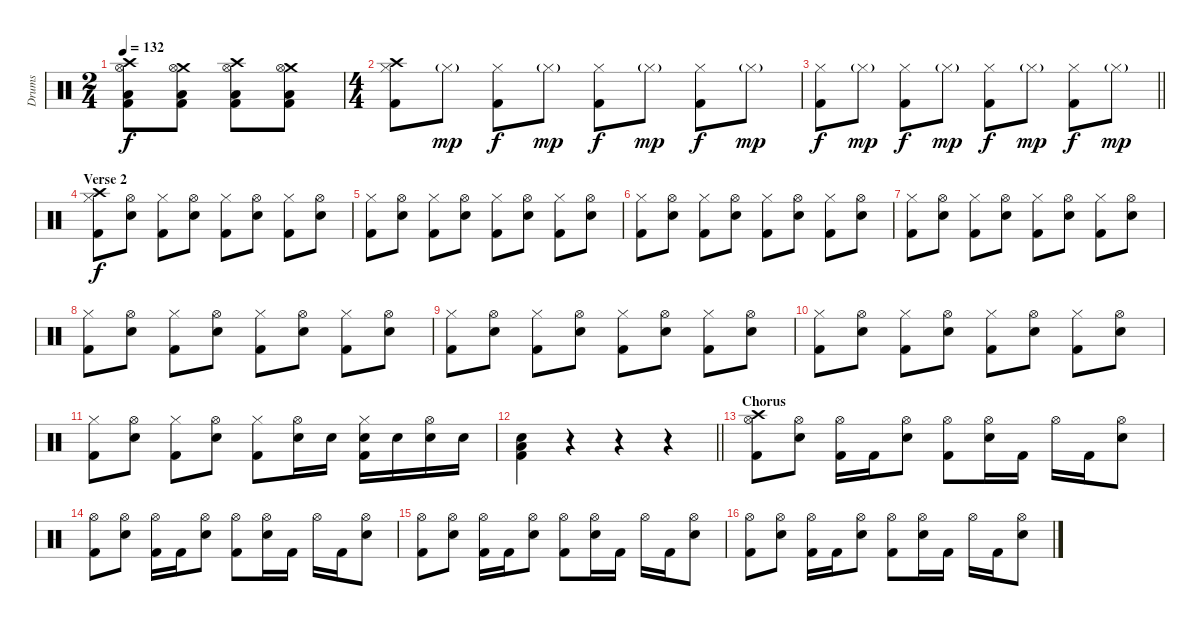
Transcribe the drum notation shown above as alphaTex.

\track ("Drums" "Drums") {instrument percussion}
\staff {score}
\articulation defaults
\ts (2 4)
\tempo 132
\clef neutral
\ks c
("Crash high (hit)" "Hi-Hat (open)" "Low Floor Tom (hit)" "Kick (hit) 2").8{dy f} ("Crash medium (hit)" "Hi-Hat (open)" "Low Floor Tom (hit)" "Kick (hit) 2").8 ("Crash high (hit)" "Hi-Hat (open)" "Low Floor Tom (hit)" "Kick (hit) 2").8 ("Crash medium (hit)" "Hi-Hat (open)" "Low Floor Tom (hit)" "Kick (hit) 2").8 |
\ts (4 4)
("Crash high (hit)" "Hi-Hat (closed)" "Kick (hit) 2").8 "Hi-Hat (closed)"{g}.8{dy mp} ("Hi-Hat (closed)" "Kick (hit) 2").8{dy f} "Hi-Hat (closed)"{g}.8{dy mp} ("Hi-Hat (closed)" "Kick (hit) 2").8{dy f} "Hi-Hat (closed)"{g}.8{dy mp} ("Hi-Hat (closed)" "Kick (hit) 2").8{dy f} "Hi-Hat (closed)"{g}.8{dy mp} |
\barLineRight lightlight
("Hi-Hat (closed)" "Kick (hit) 2").8{dy f} "Hi-Hat (closed)"{g}.8{dy mp} ("Hi-Hat (closed)" "Kick (hit) 2").8{dy f} "Hi-Hat (closed)"{g}.8{dy mp} ("Hi-Hat (closed)" "Kick (hit) 2").8{dy f} "Hi-Hat (closed)"{g}.8{dy mp} ("Hi-Hat (closed)" "Kick (hit) 2").8{dy f} "Hi-Hat (closed)"{g}.8{dy mp} |
\section ("" "Verse 2")
("Crash high (hit)" "Hi-Hat (closed)" "Kick (hit) 2").8{dy f} ("Hi-Hat (open)" "Snare (hit) 2").8 ("Hi-Hat (closed)" "Kick (hit) 2").8 ("Hi-Hat (open)" "Snare (hit) 2").8 ("Hi-Hat (closed)" "Kick (hit) 2").8 ("Hi-Hat (open)" "Snare (hit) 2").8 ("Hi-Hat (closed)" "Kick (hit) 2").8 ("Hi-Hat (open)" "Snare (hit) 2").8 |
("Hi-Hat (closed)" "Kick (hit) 2").8 ("Hi-Hat (open)" "Snare (hit) 2").8 ("Hi-Hat (closed)" "Kick (hit) 2").8 ("Hi-Hat (open)" "Snare (hit) 2").8 ("Hi-Hat (closed)" "Kick (hit) 2").8 ("Hi-Hat (open)" "Snare (hit) 2").8 ("Hi-Hat (closed)" "Kick (hit) 2").8 ("Hi-Hat (open)" "Snare (hit) 2").8 |
("Hi-Hat (closed)" "Kick (hit) 2").8 ("Hi-Hat (open)" "Snare (hit) 2").8 ("Hi-Hat (closed)" "Kick (hit) 2").8 ("Hi-Hat (open)" "Snare (hit) 2").8 ("Hi-Hat (closed)" "Kick (hit) 2").8 ("Hi-Hat (open)" "Snare (hit) 2").8 ("Hi-Hat (closed)" "Kick (hit) 2").8 ("Hi-Hat (open)" "Snare (hit) 2").8 |
("Hi-Hat (closed)" "Kick (hit) 2").8 ("Hi-Hat (open)" "Snare (hit) 2").8 ("Hi-Hat (closed)" "Kick (hit) 2").8 ("Hi-Hat (open)" "Snare (hit) 2").8 ("Hi-Hat (closed)" "Kick (hit) 2").8 ("Hi-Hat (open)" "Snare (hit) 2").8 ("Hi-Hat (closed)" "Kick (hit) 2").8 ("Hi-Hat (open)" "Snare (hit) 2").8 |
("Hi-Hat (closed)" "Kick (hit) 2").8 ("Hi-Hat (open)" "Snare (hit) 2").8 ("Hi-Hat (closed)" "Kick (hit) 2").8 ("Hi-Hat (open)" "Snare (hit) 2").8 ("Hi-Hat (closed)" "Kick (hit) 2").8 ("Hi-Hat (open)" "Snare (hit) 2").8 ("Hi-Hat (closed)" "Kick (hit) 2").8 ("Hi-Hat (open)" "Snare (hit) 2").8 |
("Hi-Hat (closed)" "Kick (hit) 2").8 ("Hi-Hat (open)" "Snare (hit) 2").8 ("Hi-Hat (closed)" "Kick (hit) 2").8 ("Hi-Hat (open)" "Snare (hit) 2").8 ("Hi-Hat (closed)" "Kick (hit) 2").8 ("Hi-Hat (open)" "Snare (hit) 2").8 ("Hi-Hat (closed)" "Kick (hit) 2").8 ("Hi-Hat (open)" "Snare (hit) 2").8 |
("Hi-Hat (closed)" "Kick (hit) 2").8 ("Hi-Hat (open)" "Snare (hit) 2").8 ("Hi-Hat (closed)" "Kick (hit) 2").8 ("Hi-Hat (open)" "Snare (hit) 2").8 ("Hi-Hat (closed)" "Kick (hit) 2").8 ("Hi-Hat (open)" "Snare (hit) 2").8 ("Hi-Hat (closed)" "Kick (hit) 2").8 ("Hi-Hat (open)" "Snare (hit) 2").8 |
("Hi-Hat (closed)" "Kick (hit) 2").8 ("Hi-Hat (open)" "Snare (hit) 2").8 ("Hi-Hat (closed)" "Kick (hit) 2").8 ("Hi-Hat (open)" "Snare (hit) 2").8 ("Hi-Hat (closed)" "Kick (hit) 2").8 ("Hi-Hat (open)" "Snare (hit) 2").16 "Snare (hit) 2".16 ("Hi-Hat (closed)" "Snare (hit) 2" "Kick (hit) 2").16 "Snare (hit) 2".16 ("Hi-Hat (open)" "Snare (hit) 2").16 "Snare (hit) 2".16 |
\barLineRight lightlight
("Snare (hit) 2" "Low Floor Tom (hit)" "Kick (hit) 2").4 r.4 r.4 r.4 |
\section ("" "Chorus")
("Crash high (hit)" "Hi-Hat (open)" "Kick (hit) 2").8 ("Hi-Hat (open)" "Snare (hit) 2").8 ("Hi-Hat (open)" "Kick (hit) 2").16 "Kick (hit) 2".16 ("Hi-Hat (open)" "Snare (hit) 2").8 ("Hi-Hat (open)" "Kick (hit) 2").8 ("Hi-Hat (open)" "Snare (hit) 2").16 "Kick (hit) 2".16 "Hi-Hat (open)".16 "Kick (hit) 2".16 ("Hi-Hat (open)" "Snare (hit) 2").8 |
("Hi-Hat (open)" "Kick (hit) 2").8 ("Hi-Hat (open)" "Snare (hit) 2").8 ("Hi-Hat (open)" "Kick (hit) 2").16 "Kick (hit) 2".16 ("Hi-Hat (open)" "Snare (hit) 2").8 ("Hi-Hat (open)" "Kick (hit) 2").8 ("Hi-Hat (open)" "Snare (hit) 2").16 "Kick (hit) 2".16 "Hi-Hat (open)".16 "Kick (hit) 2".16 ("Hi-Hat (open)" "Snare (hit) 2").8 |
("Hi-Hat (open)" "Kick (hit) 2").8 ("Hi-Hat (open)" "Snare (hit) 2").8 ("Hi-Hat (open)" "Kick (hit) 2").16 "Kick (hit) 2".16 ("Hi-Hat (open)" "Snare (hit) 2").8 ("Hi-Hat (open)" "Kick (hit) 2").8 ("Hi-Hat (open)" "Snare (hit) 2").16 "Kick (hit) 2".16 "Hi-Hat (open)".16 "Kick (hit) 2".16 ("Hi-Hat (open)" "Snare (hit) 2").8 |
("Hi-Hat (open)" "Kick (hit) 2").8 ("Hi-Hat (open)" "Snare (hit) 2").8 ("Hi-Hat (open)" "Kick (hit) 2").16 "Kick (hit) 2".16 ("Hi-Hat (open)" "Snare (hit) 2").8 ("Hi-Hat (open)" "Kick (hit) 2").8 ("Hi-Hat (open)" "Snare (hit) 2").16 "Kick (hit) 2".16 "Hi-Hat (open)".16 "Kick (hit) 2".16 ("Hi-Hat (open)" "Snare (hit) 2").8
